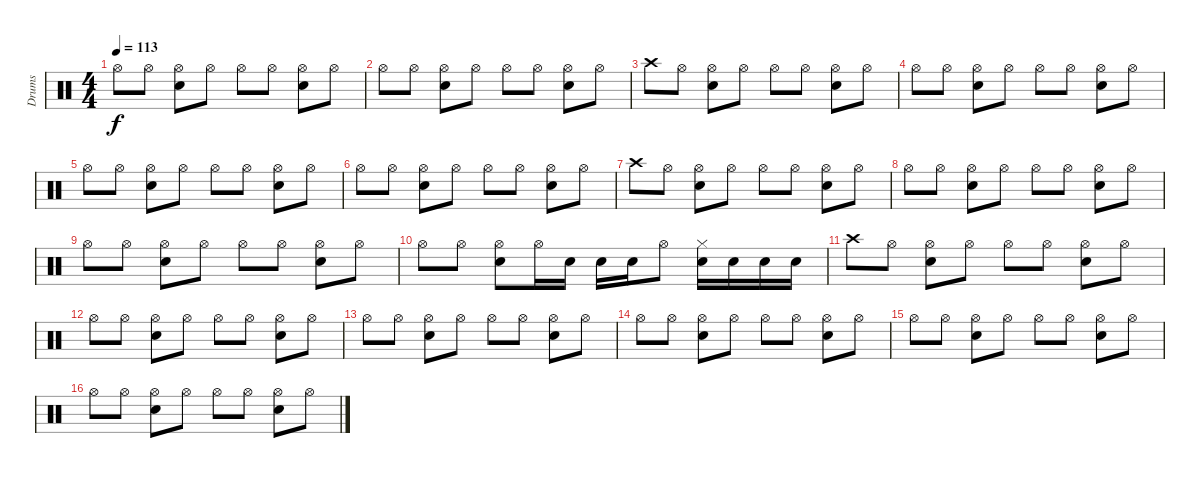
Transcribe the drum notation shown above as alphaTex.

\track ("Drums" "Drums") {instrument percussion}
\staff {score}
\articulation defaults
\ts (4 4)
\tempo 113
\clef neutral
\ks c "Hi-Hat (open)".8{dy f} "Hi-Hat (open)".8
("Hi-Hat (open)" "Snare (hit) 2").8 "Hi-Hat (open)".8 "Hi-Hat (open)".8 "Hi-Hat (open)".8 ("Hi-Hat (open)" "Snare (hit) 2").8 "Hi-Hat (open)".8 |
"Hi-Hat (open)".8 "Hi-Hat (open)".8 ("Hi-Hat (open)" "Snare (hit) 2").8 "Hi-Hat (open)".8 "Hi-Hat (open)".8 "Hi-Hat (open)".8 ("Hi-Hat (open)" "Snare (hit) 2").8 "Hi-Hat (open)".8 |
"Crash high (hit)".8 "Hi-Hat (open)".8 ("Hi-Hat (open)" "Snare (hit) 2").8 "Hi-Hat (open)".8 "Hi-Hat (open)".8 "Hi-Hat (open)".8 ("Hi-Hat (open)" "Snare (hit) 2").8 "Hi-Hat (open)".8 |
"Hi-Hat (open)".8 "Hi-Hat (open)".8 ("Hi-Hat (open)" "Snare (hit) 2").8 "Hi-Hat (open)".8 "Hi-Hat (open)".8 "Hi-Hat (open)".8 ("Hi-Hat (open)" "Snare (hit) 2").8 "Hi-Hat (open)".8 |
"Hi-Hat (open)".8 "Hi-Hat (open)".8 ("Hi-Hat (open)" "Snare (hit) 2").8 "Hi-Hat (open)".8 "Hi-Hat (open)".8 "Hi-Hat (open)".8 ("Hi-Hat (open)" "Snare (hit) 2").8 "Hi-Hat (open)".8 |
"Hi-Hat (open)".8 "Hi-Hat (open)".8 ("Hi-Hat (open)" "Snare (hit) 2").8 "Hi-Hat (open)".8 "Hi-Hat (open)".8 "Hi-Hat (open)".8 ("Hi-Hat (open)" "Snare (hit) 2").8 "Hi-Hat (open)".8 |
"Crash high (hit)".8 "Hi-Hat (open)".8 ("Hi-Hat (open)" "Snare (hit) 2").8 "Hi-Hat (open)".8 "Hi-Hat (open)".8 "Hi-Hat (open)".8 ("Hi-Hat (open)" "Snare (hit) 2").8 "Hi-Hat (open)".8 |
"Hi-Hat (open)".8 "Hi-Hat (open)".8 ("Hi-Hat (open)" "Snare (hit) 2").8 "Hi-Hat (open)".8 "Hi-Hat (open)".8 "Hi-Hat (open)".8 ("Hi-Hat (open)" "Snare (hit) 2").8 "Hi-Hat (open)".8 |
"Hi-Hat (open)".8 "Hi-Hat (open)".8 ("Hi-Hat (open)" "Snare (hit) 2").8 "Hi-Hat (open)".8 "Hi-Hat (open)".8 "Hi-Hat (open)".8 ("Hi-Hat (open)" "Snare (hit) 2").8 "Hi-Hat (open)".8 |
"Hi-Hat (open)".8 "Hi-Hat (open)".8 ("Hi-Hat (open)" "Snare (hit) 2").8 "Hi-Hat (open)".16 "Snare (hit) 2".16 "Snare (hit) 2".16 "Snare (hit) 2".16 "Hi-Hat (open)".8 ("Hi-Hat (closed)" "Snare (hit) 2").16 "Snare (hit) 2".16 "Snare (hit) 2".16 "Snare (hit) 2".16 |
"Crash high (hit)".8 "Hi-Hat (open)".8 ("Hi-Hat (open)" "Snare (hit) 2").8 "Hi-Hat (open)".8 "Hi-Hat (open)".8 "Hi-Hat (open)".8 ("Hi-Hat (open)" "Snare (hit) 2").8 "Hi-Hat (open)".8 |
"Hi-Hat (open)".8 "Hi-Hat (open)".8 ("Hi-Hat (open)" "Snare (hit) 2").8 "Hi-Hat (open)".8 "Hi-Hat (open)".8 "Hi-Hat (open)".8 ("Hi-Hat (open)" "Snare (hit) 2").8 "Hi-Hat (open)".8 |
"Hi-Hat (open)".8 "Hi-Hat (open)".8 ("Hi-Hat (open)" "Snare (hit) 2").8 "Hi-Hat (open)".8 "Hi-Hat (open)".8 "Hi-Hat (open)".8 ("Hi-Hat (open)" "Snare (hit) 2").8 "Hi-Hat (open)".8 |
"Hi-Hat (open)".8 "Hi-Hat (open)".8 ("Hi-Hat (open)" "Snare (hit) 2").8 "Hi-Hat (open)".8 "Hi-Hat (open)".8 "Hi-Hat (open)".8 ("Hi-Hat (open)" "Snare (hit) 2").8 "Hi-Hat (open)".8 |
"Hi-Hat (open)".8 "Hi-Hat (open)".8 ("Hi-Hat (open)" "Snare (hit) 2").8 "Hi-Hat (open)".8 "Hi-Hat (open)".8 "Hi-Hat (open)".8 ("Hi-Hat (open)" "Snare (hit) 2").8 "Hi-Hat (open)".8 |
"Hi-Hat (open)".8 "Hi-Hat (open)".8 ("Hi-Hat (open)" "Snare (hit) 2").8 "Hi-Hat (open)".8 "Hi-Hat (open)".8 "Hi-Hat (open)".8 ("Hi-Hat (open)" "Snare (hit) 2").8 "Hi-Hat (open)".8
